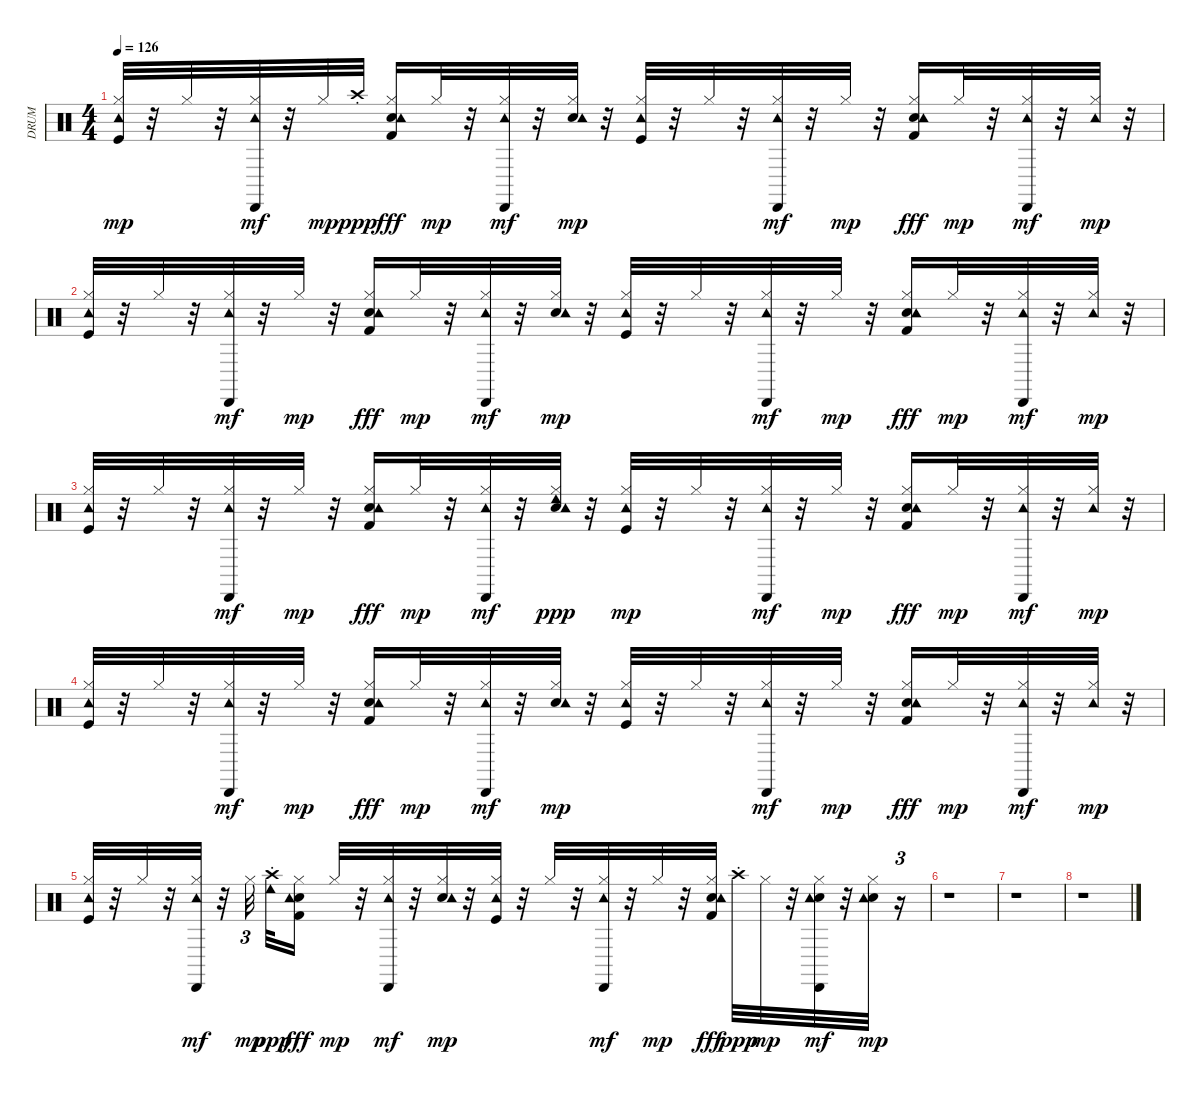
\track ("DRUM" "DRUM") {instrument percussion}
\staff {score}
\articulation defaults
\ts (4 4)
\tempo 126
\clef neutral
\ks c
("Kick (hit)" "Hi-Hat (closed)" "Tambourine (hit)").32{dy mp} r.32 "Hi-Hat (closed)".32 r.32 ("Hi-Hat (closed)" "Tambourine (hit)" "Cabasa (hit)").32{dy mf} r.32 "Hi-Hat (closed)".32{dy mp} "Crash high (choke)".32{dy ppp} ("Snare (hit) 2" "Hi-Hat (closed)" "Tambourine (hit)" "Kick (hit) 2").16{dy fff} "Hi-Hat (closed)".32{dy mp} r.32 ("Hi-Hat (closed)" "Tambourine (hit)" "Cabasa (hit)").32{dy mf} r.32 ("Snare (hit) 2" "Hi-Hat (closed)" "Tambourine (hit)").32{dy mp} r.32 ("Kick (hit)" "Hi-Hat (closed)" "Tambourine (hit)").32 r.32 "Hi-Hat (closed)".32 r.32 ("Hi-Hat (closed)" "Tambourine (hit)" "Cabasa (hit)").32{dy mf} r.32 "Hi-Hat (closed)".32{dy mp} r.32 ("Snare (hit) 2" "Hi-Hat (closed)" "Tambourine (hit)" "Kick (hit) 2").16{dy fff} "Hi-Hat (closed)".32{dy mp} r.32 ("Hi-Hat (closed)" "Tambourine (hit)" "Cabasa (hit)").32{dy mf} r.32 ("Hi-Hat (closed)" "Tambourine (hit)").32{dy mp} r.32 |
("Kick (hit)" "Hi-Hat (closed)" "Tambourine (hit)").32 r.32 "Hi-Hat (closed)".32 r.32 ("Hi-Hat (closed)" "Tambourine (hit)" "Cabasa (hit)").32{dy mf} r.32 "Hi-Hat (closed)".32{dy mp} r.32 ("Snare (hit) 2" "Hi-Hat (closed)" "Tambourine (hit)" "Kick (hit) 2").16{dy fff} "Hi-Hat (closed)".32{dy mp} r.32 ("Hi-Hat (closed)" "Tambourine (hit)" "Cabasa (hit)").32{dy mf} r.32 ("Snare (hit) 2" "Hi-Hat (closed)" "Tambourine (hit)").32{dy mp} r.32 ("Kick (hit)" "Hi-Hat (closed)" "Tambourine (hit)").32 r.32 "Hi-Hat (closed)".32 r.32 ("Hi-Hat (closed)" "Tambourine (hit)" "Cabasa (hit)").32{dy mf} r.32 "Hi-Hat (closed)".32{dy mp} r.32 ("Snare (hit) 2" "Hi-Hat (closed)" "Tambourine (hit)" "Kick (hit) 2").16{dy fff} "Hi-Hat (closed)".32{dy mp} r.32 ("Hi-Hat (closed)" "Tambourine (hit)" "Cabasa (hit)").32{dy mf} r.32 ("Hi-Hat (closed)" "Tambourine (hit)").32{dy mp} r.32 |
("Kick (hit)" "Hi-Hat (closed)" "Tambourine (hit)").32 r.32 "Hi-Hat (closed)".32 r.32 ("Hi-Hat (closed)" "Tambourine (hit)" "Cabasa (hit)").32{dy mf} r.32 "Hi-Hat (closed)".32{dy mp} r.32 ("Snare (hit) 2" "Hi-Hat (closed)" "Tambourine (hit)" "Kick (hit) 2").16{dy fff} "Hi-Hat (closed)".32{dy mp} r.32 ("Hi-Hat (closed)" "Tambourine (hit)" "Cabasa (hit)").32{dy mf} r.32 ("Snare (hit) 2" "Hi-Hat (closed)" "Tambourine (hit)" "Cowbell low (hit)").32{dy ppp} r.32 ("Kick (hit)" "Hi-Hat (closed)" "Tambourine (hit)").32{dy mp} r.32 "Hi-Hat (closed)".32 r.32 ("Hi-Hat (closed)" "Tambourine (hit)" "Cabasa (hit)").32{dy mf} r.32 "Hi-Hat (closed)".32{dy mp} r.32 ("Snare (hit) 2" "Hi-Hat (closed)" "Tambourine (hit)" "Kick (hit) 2").16{dy fff} "Hi-Hat (closed)".32{dy mp} r.32 ("Hi-Hat (closed)" "Tambourine (hit)" "Cabasa (hit)").32{dy mf} r.32 ("Hi-Hat (closed)" "Tambourine (hit)").32{dy mp} r.32 |
("Kick (hit)" "Hi-Hat (closed)" "Tambourine (hit)").32 r.32 "Hi-Hat (closed)".32 r.32 ("Hi-Hat (closed)" "Tambourine (hit)" "Cabasa (hit)").32{dy mf} r.32 "Hi-Hat (closed)".32{dy mp} r.32 ("Snare (hit) 2" "Hi-Hat (closed)" "Tambourine (hit)" "Kick (hit) 2").16{dy fff} "Hi-Hat (closed)".32{dy mp} r.32 ("Hi-Hat (closed)" "Tambourine (hit)" "Cabasa (hit)").32{dy mf} r.32 ("Snare (hit) 2" "Hi-Hat (closed)" "Tambourine (hit)").32{dy mp} r.32 ("Kick (hit)" "Hi-Hat (closed)" "Tambourine (hit)").32 r.32 "Hi-Hat (closed)".32 r.32 ("Hi-Hat (closed)" "Tambourine (hit)" "Cabasa (hit)").32{dy mf} r.32 "Hi-Hat (closed)".32{dy mp} r.32 ("Snare (hit) 2" "Hi-Hat (closed)" "Tambourine (hit)" "Kick (hit) 2").16{dy fff} "Hi-Hat (closed)".32{dy mp} r.32 ("Hi-Hat (closed)" "Tambourine (hit)" "Cabasa (hit)").32{dy mf} r.32 ("Hi-Hat (closed)" "Tambourine (hit)").32{dy mp} r.32 |
("Kick (hit)" "Hi-Hat (closed)" "Tambourine (hit)").32 r.32 "Hi-Hat (closed)".32 r.32 ("Hi-Hat (closed)" "Tambourine (hit)" "Cabasa (hit)").32{dy mf} r.32 "Hi-Hat (closed)".32{tu (3 2) dy mp} ("Cowbell low (hit)" "Crash high (choke)").32{dy ppp} ("Snare (hit) 2" "Hi-Hat (closed)" "Tambourine (hit)" "Kick (hit) 2").16{dy fff} "Hi-Hat (closed)".32{dy mp} r.32 ("Hi-Hat (closed)" "Tambourine (hit)" "Cabasa (hit)").32{dy mf} r.32 ("Snare (hit) 2" "Hi-Hat (closed)" "Tambourine (hit)").32{dy mp} r.32 ("Kick (hit)" "Hi-Hat (closed)" "Tambourine (hit)").32 r.32 "Hi-Hat (closed)".32 r.32 ("Hi-Hat (closed)" "Tambourine (hit)" "Cabasa (hit)").32{dy mf} r.32 "Hi-Hat (closed)".32{dy mp} r.32 ("Snare (hit) 2" "Hi-Hat (closed)" "Tambourine (hit)" "Kick (hit) 2").32{dy fff} "Crash high (choke)".32{dy ppp} "Hi-Hat (closed)".32{dy mp} r.32 ("Snare (hit) 2" "Hi-Hat (closed)" "Tambourine (hit)" "Cabasa (hit)").32{dy mf} r.32 ("Snare (hit) 2" "Hi-Hat (closed)" "Tambourine (hit)").32{dy mp} r.16{tu (3 2)} |
r.1 |
r.1 |
r.1
